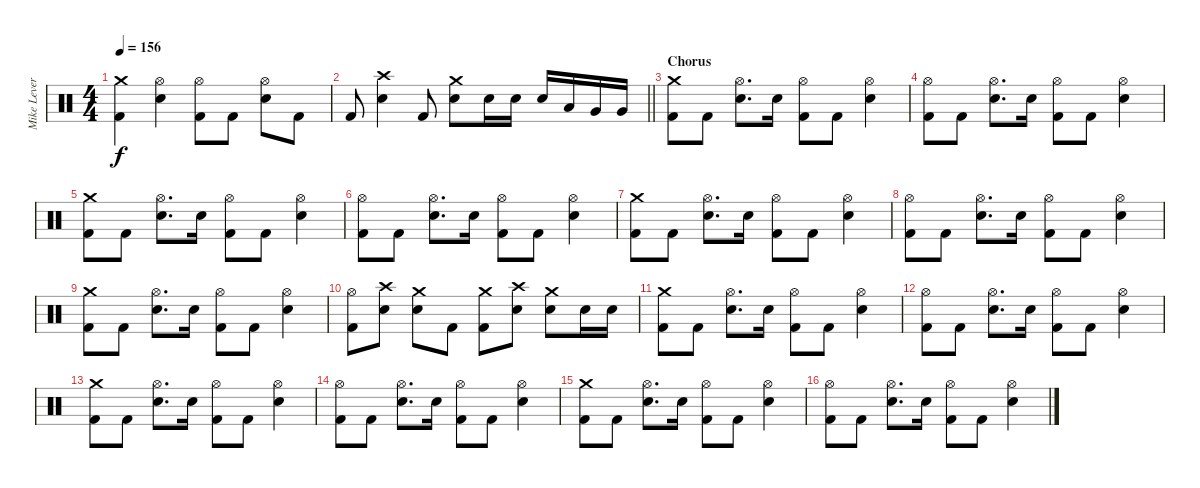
\track ("Mike Leverence - Drums" "Mike Lever") {instrument percussion}
\staff {score}
\articulation defaults
\ts (4 4)
\tempo 156
\clef neutral
\ks c
("Crash medium (hit)" "Kick (hit) 2").4{dy f} ("Hi-Hat (open)" "Electric Snare (hit)").4 ("Hi-Hat (open)" "Kick (hit) 2").8 "Kick (hit) 2".8 ("Hi-Hat (open)" "Electric Snare (hit)").8 "Kick (hit) 2".8 |
\barLineRight lightlight "Kick (hit) 2".8
("Crash high (hit)" "Electric Snare (hit)").4 "Kick (hit) 2".8 ("Crash medium (hit)" "Electric Snare (hit)").8 "Electric Snare (hit)".16 "Electric Snare (hit)".16 "Electric Snare (hit)".16 "Low Tom (hit)".16 "Very Low Tom (hit)".16 "Very Low Tom (hit)".16 |
\section ("" "Chorus")
("Crash medium (hit)" "Kick (hit) 2").8 "Kick (hit) 2".8 ("Hi-Hat (open)" "Electric Snare (hit)").8{d} "Electric Snare (hit)".16 ("Hi-Hat (open)" "Kick (hit) 2").8 "Kick (hit) 2".8 ("Hi-Hat (open)" "Electric Snare (hit)").4 |
("Hi-Hat (open)" "Kick (hit) 2").8 "Kick (hit) 2".8 ("Hi-Hat (open)" "Electric Snare (hit)").8{d} "Electric Snare (hit)".16 ("Hi-Hat (open)" "Kick (hit) 2").8 "Kick (hit) 2".8 ("Hi-Hat (open)" "Electric Snare (hit)").4 |
("Crash medium (hit)" "Kick (hit) 2").8 "Kick (hit) 2".8 ("Hi-Hat (open)" "Electric Snare (hit)").8{d} "Electric Snare (hit)".16 ("Hi-Hat (open)" "Kick (hit) 2").8 "Kick (hit) 2".8 ("Hi-Hat (open)" "Electric Snare (hit)").4 |
("Hi-Hat (open)" "Kick (hit) 2").8 "Kick (hit) 2".8 ("Hi-Hat (open)" "Electric Snare (hit)").8{d} "Electric Snare (hit)".16 ("Hi-Hat (open)" "Kick (hit) 2").8 "Kick (hit) 2".8 ("Hi-Hat (open)" "Electric Snare (hit)").4 |
("Crash medium (hit)" "Kick (hit) 2").8 "Kick (hit) 2".8 ("Hi-Hat (open)" "Electric Snare (hit)").8{d} "Electric Snare (hit)".16 ("Hi-Hat (open)" "Kick (hit) 2").8 "Kick (hit) 2".8 ("Hi-Hat (open)" "Electric Snare (hit)").4 |
("Hi-Hat (open)" "Kick (hit) 2").8 "Kick (hit) 2".8 ("Hi-Hat (open)" "Electric Snare (hit)").8{d} "Electric Snare (hit)".16 ("Hi-Hat (open)" "Kick (hit) 2").8 "Kick (hit) 2".8 ("Hi-Hat (open)" "Electric Snare (hit)").4 |
("Crash medium (hit)" "Kick (hit) 2").8 "Kick (hit) 2".8 ("Hi-Hat (open)" "Electric Snare (hit)").8{d} "Electric Snare (hit)".16 ("Hi-Hat (open)" "Kick (hit) 2").8 "Kick (hit) 2".8 ("Hi-Hat (open)" "Electric Snare (hit)").4 |
("Hi-Hat (open)" "Kick (hit) 2").8 ("Crash high (hit)" "Electric Snare (hit)").8 ("Crash medium (hit)" "Electric Snare (hit)").8 "Kick (hit) 2".8 ("Crash medium (hit)" "Kick (hit) 2").8 ("Crash high (hit)" "Electric Snare (hit)").8 ("Crash medium (hit)" "Electric Snare (hit)").8 "Electric Snare (hit)".16 "Electric Snare (hit)".16 |
("Crash medium (hit)" "Kick (hit) 2").8 "Kick (hit) 2".8 ("Hi-Hat (open)" "Electric Snare (hit)").8{d} "Electric Snare (hit)".16 ("Hi-Hat (open)" "Kick (hit) 2").8 "Kick (hit) 2".8 ("Hi-Hat (open)" "Electric Snare (hit)").4 |
("Hi-Hat (open)" "Kick (hit) 2").8 "Kick (hit) 2".8 ("Hi-Hat (open)" "Electric Snare (hit)").8{d} "Electric Snare (hit)".16 ("Hi-Hat (open)" "Kick (hit) 2").8 "Kick (hit) 2".8 ("Hi-Hat (open)" "Electric Snare (hit)").4 |
("Crash medium (hit)" "Kick (hit) 2").8 "Kick (hit) 2".8 ("Hi-Hat (open)" "Electric Snare (hit)").8{d} "Electric Snare (hit)".16 ("Hi-Hat (open)" "Kick (hit) 2").8 "Kick (hit) 2".8 ("Hi-Hat (open)" "Electric Snare (hit)").4 |
("Hi-Hat (open)" "Kick (hit) 2").8 "Kick (hit) 2".8 ("Hi-Hat (open)" "Electric Snare (hit)").8{d} "Electric Snare (hit)".16 ("Hi-Hat (open)" "Kick (hit) 2").8 "Kick (hit) 2".8 ("Hi-Hat (open)" "Electric Snare (hit)").4 |
("Crash medium (hit)" "Kick (hit) 2").8 "Kick (hit) 2".8 ("Hi-Hat (open)" "Electric Snare (hit)").8{d} "Electric Snare (hit)".16 ("Hi-Hat (open)" "Kick (hit) 2").8 "Kick (hit) 2".8 ("Hi-Hat (open)" "Electric Snare (hit)").4 |
("Hi-Hat (open)" "Kick (hit) 2").8 "Kick (hit) 2".8 ("Hi-Hat (open)" "Electric Snare (hit)").8{d} "Electric Snare (hit)".16 ("Hi-Hat (open)" "Kick (hit) 2").8 "Kick (hit) 2".8 ("Hi-Hat (open)" "Electric Snare (hit)").4
